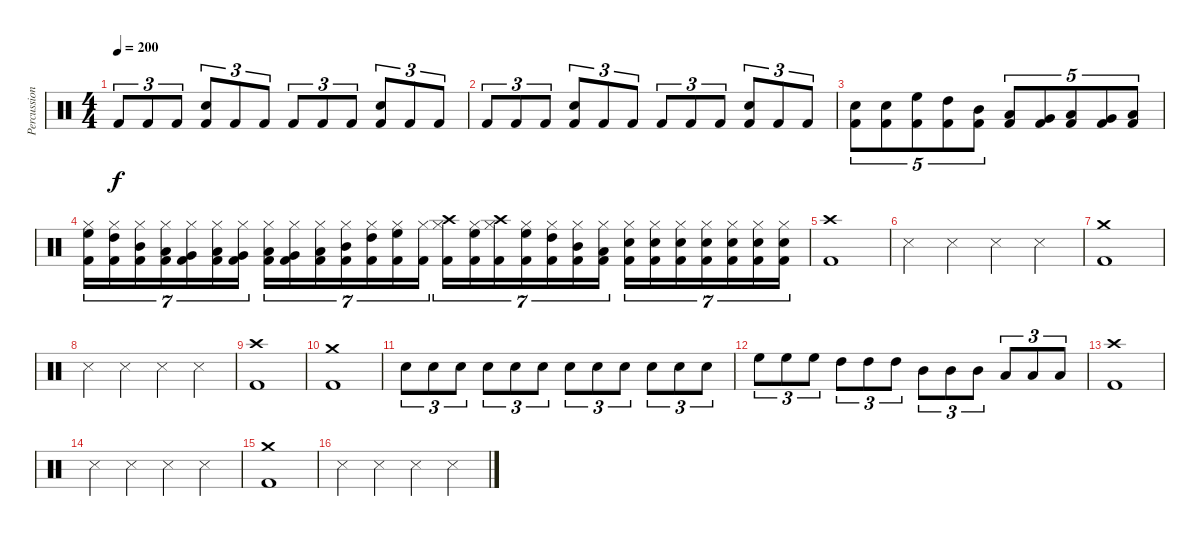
\track ("Percussion" "Percussion") {instrument percussion}
\staff {score}
\articulation defaults
\ts (4 4)
\tempo 200
\clef neutral
\ks c "Kick (hit) 2".8{tu (3 2) dy f} "Kick (hit) 2".8{tu (3 2)} "Kick (hit) 2".8{tu (3 2)}
("Electric Snare (hit)" "Kick (hit) 2").8{tu (3 2)} "Kick (hit) 2".8{tu (3 2)} "Kick (hit) 2".8{tu (3 2)} "Kick (hit) 2".8{tu (3 2)} "Kick (hit) 2".8{tu (3 2)} "Kick (hit) 2".8{tu (3 2)} ("Electric Snare (hit)" "Kick (hit) 2").8{tu (3 2)} "Kick (hit) 2".8{tu (3 2)} "Kick (hit) 2".8{tu (3 2)} |
"Kick (hit) 2".8{tu (3 2)} "Kick (hit) 2".8{tu (3 2)} "Kick (hit) 2".8{tu (3 2)} ("Electric Snare (hit)" "Kick (hit) 2").8{tu (3 2)} "Kick (hit) 2".8{tu (3 2)} "Kick (hit) 2".8{tu (3 2)} "Kick (hit) 2".8{tu (3 2)} "Kick (hit) 2".8{tu (3 2)} "Kick (hit) 2".8{tu (3 2)} ("Electric Snare (hit)" "Kick (hit) 2").8{tu (3 2)} "Kick (hit) 2".8{tu (3 2)} "Kick (hit) 2".8{tu (3 2)} |
("Electric Snare (hit)" "Kick (hit) 2").8{tu (5 4)} ("Electric Snare (hit)" "Kick (hit) 2").8{tu (5 4)} ("High Floor Tom (hit)" "Kick (hit) 2").8{tu (5 4)} ("High Tom (hit)" "Kick (hit) 2").8{tu (5 4)} ("Mid Tom (hit)" "Kick (hit) 2").8{tu (5 4)} ("Low Tom (hit)" "Kick (hit) 2").8{tu (5 4)} ("Very Low Tom (hit)" "Kick (hit) 2").8{tu (5 4)} ("Low Floor Tom (hit)" "Kick (hit) 2").8{tu (5 4)} ("Very Low Tom (hit)" "Kick (hit) 2").8{tu (5 4)} ("Low Tom (hit)" "Kick (hit) 2").8{tu (5 4)} |
("Hi-Hat (closed)" "High Floor Tom (hit)" "Kick (hit) 2").16{tu (7 4)} ("Hi-Hat (closed)" "High Tom (hit)" "Kick (hit) 2").16{tu (7 4)} ("Hi-Hat (closed)" "Mid Tom (hit)" "Kick (hit) 2").16{tu (7 4)} ("Hi-Hat (closed)" "Low Tom (hit)" "Kick (hit) 2").16{tu (7 4)} ("Hi-Hat (closed)" "Very Low Tom (hit)" "Kick (hit) 2").16{tu (7 4)} ("Hi-Hat (closed)" "Low Floor Tom (hit)" "Kick (hit) 2").16{tu (7 4)} ("Hi-Hat (closed)" "Very Low Tom (hit)" "Kick (hit) 2").16{tu (7 4)} ("Hi-Hat (closed)" "Low Floor Tom (hit)" "Kick (hit) 2").16{tu (7 4)} ("Hi-Hat (closed)" "Very Low Tom (hit)" "Kick (hit) 2").16{tu (7 4)} ("Hi-Hat (closed)" "Low Tom (hit)" "Kick (hit) 2").16{tu (7 4)} ("Hi-Hat (closed)" "Mid Tom (hit)" "Kick (hit) 2").16{tu (7 4)} ("Hi-Hat (closed)" "High Tom (hit)" "Kick (hit) 2").16{tu (7 4)} ("Hi-Hat (closed)" "High Floor Tom (hit)" "Kick (hit) 2").16{tu (7 4)} ("Hi-Hat (closed)" "Kick (hit) 2").16{tu (7 4)} ("Hi-Hat (closed)" "Crash high (hit)" "Kick (hit) 2").16{tu (7 4)} ("Hi-Hat (closed)" "High Floor Tom (hit)" "Kick (hit) 2").16{tu (7 4)} ("Hi-Hat (closed)" "Crash high (hit)" "Kick (hit) 2").16{tu (7 4)} ("Hi-Hat (closed)" "High Floor Tom (hit)" "Kick (hit) 2").16{tu (7 4)} ("Hi-Hat (closed)" "High Tom (hit)" "Kick (hit) 2").16{tu (7 4)} ("Hi-Hat (closed)" "Mid Tom (hit)" "Kick (hit) 2").16{tu (7 4)} ("Hi-Hat (closed)" "Low Tom (hit)" "Kick (hit) 2").16{tu (7 4)} ("Hi-Hat (closed)" "Electric Snare (hit)" "Kick (hit) 2").16{tu (7 4)} ("Hi-Hat (closed)" "Electric Snare (hit)" "Kick (hit) 2").16{tu (7 4)} ("Hi-Hat (closed)" "Electric Snare (hit)" "Kick (hit) 2").16{tu (7 4)} ("Hi-Hat (closed)" "Electric Snare (hit)" "Kick (hit) 2").16{tu (7 4)} ("Hi-Hat (closed)" "Electric Snare (hit)" "Kick (hit) 2").16{tu (7 4)} ("Hi-Hat (closed)" "Electric Snare (hit)" "Kick (hit) 2").16{tu (7 4)} ("Hi-Hat (closed)" "Electric Snare (hit)" "Kick (hit) 2").16{tu (7 4)} |
("Crash high (hit)" "Kick (hit) 2").1 |
"Snare (side stick) 3".4 "Snare (side stick) 3".4 "Snare (side stick) 3".4 "Snare (side stick) 3".4 |
("Crash medium (hit)" "Kick (hit) 2").1 |
"Snare (side stick) 3".4 "Snare (side stick) 3".4 "Snare (side stick) 3".4 "Snare (side stick) 3".4 |
("Crash high (hit)" "Kick (hit) 2").1 |
("Crash medium (hit)" "Kick (hit) 2").1 |
"Electric Snare (hit)".8{tu (3 2)} "Electric Snare (hit)".8{tu (3 2)} "Electric Snare (hit)".8{tu (3 2)} "Electric Snare (hit)".8{tu (3 2)} "Electric Snare (hit)".8{tu (3 2)} "Electric Snare (hit)".8{tu (3 2)} "Electric Snare (hit)".8{tu (3 2)} "Electric Snare (hit)".8{tu (3 2)} "Electric Snare (hit)".8{tu (3 2)} "Electric Snare (hit)".8{tu (3 2)} "Electric Snare (hit)".8{tu (3 2)} "Electric Snare (hit)".8{tu (3 2)} |
"High Floor Tom (hit)".8{tu (3 2)} "High Floor Tom (hit)".8{tu (3 2)} "High Floor Tom (hit)".8{tu (3 2)} "High Tom (hit)".8{tu (3 2)} "High Tom (hit)".8{tu (3 2)} "High Tom (hit)".8{tu (3 2)} "Mid Tom (hit)".8{tu (3 2)} "Mid Tom (hit)".8{tu (3 2)} "Mid Tom (hit)".8{tu (3 2)} "Low Tom (hit)".8{tu (3 2)} "Low Tom (hit)".8{tu (3 2)} "Low Tom (hit)".8{tu (3 2)} |
("Crash high (hit)" "Kick (hit) 2").1 |
"Snare (side stick) 3".4 "Snare (side stick) 3".4 "Snare (side stick) 3".4 "Snare (side stick) 3".4 |
("Crash medium (hit)" "Kick (hit) 2").1 |
"Snare (side stick) 3".4 "Snare (side stick) 3".4 "Snare (side stick) 3".4 "Snare (side stick) 3".4
